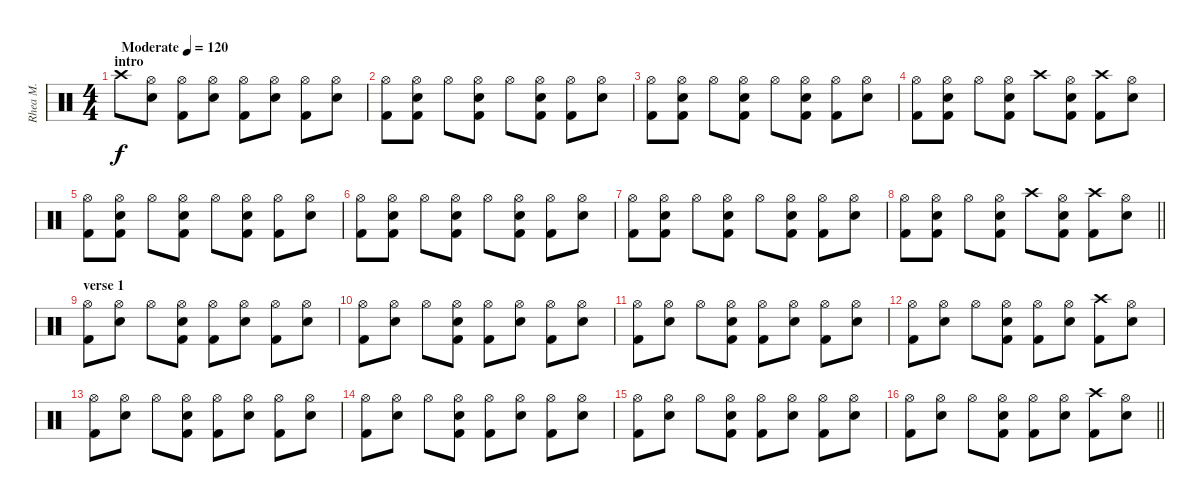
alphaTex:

\track ("Rhea M." "Rhea M.") {instrument percussion}
\staff {score}
\articulation defaults
\ts (4 4)
\section ("" "intro")
\tempo (120 "Moderate")
\clef neutral
\ks c "Crash high (hit)".8{dy f}
("Hi-Hat (open)" "Electric Snare (hit)").8 ("Hi-Hat (open)" "Kick (hit) 2").8 ("Hi-Hat (open)" "Electric Snare (hit)").8 ("Hi-Hat (open)" "Kick (hit) 2").8 ("Hi-Hat (open)" "Electric Snare (hit)").8 ("Hi-Hat (open)" "Kick (hit) 2").8 ("Hi-Hat (open)" "Electric Snare (hit)").8 |
("Hi-Hat (open)" "Kick (hit) 2").8 ("Hi-Hat (open)" "Electric Snare (hit)" "Kick (hit) 2").8 "Hi-Hat (open)".8 ("Hi-Hat (open)" "Electric Snare (hit)" "Kick (hit) 2").8 "Hi-Hat (open)".8 ("Hi-Hat (open)" "Electric Snare (hit)" "Kick (hit) 2").8 ("Hi-Hat (open)" "Kick (hit) 2").8 ("Hi-Hat (open)" "Electric Snare (hit)").8 |
("Hi-Hat (open)" "Kick (hit) 2").8 ("Hi-Hat (open)" "Electric Snare (hit)" "Kick (hit) 2").8 "Hi-Hat (open)".8 ("Hi-Hat (open)" "Electric Snare (hit)" "Kick (hit) 2").8 "Hi-Hat (open)".8 ("Hi-Hat (open)" "Electric Snare (hit)" "Kick (hit) 2").8 ("Hi-Hat (open)" "Kick (hit) 2").8 ("Hi-Hat (open)" "Electric Snare (hit)").8 |
("Hi-Hat (open)" "Kick (hit) 2").8 ("Hi-Hat (open)" "Electric Snare (hit)" "Kick (hit) 2").8 "Hi-Hat (open)".8 ("Hi-Hat (open)" "Electric Snare (hit)" "Kick (hit) 2").8 "Crash high (hit)".8 ("Hi-Hat (open)" "Electric Snare (hit)" "Kick (hit) 2").8 ("Crash high (hit)" "Kick (hit) 2").8 ("Hi-Hat (open)" "Electric Snare (hit)").8 |
("Hi-Hat (open)" "Kick (hit) 2").8 ("Hi-Hat (open)" "Electric Snare (hit)" "Kick (hit) 2").8 "Hi-Hat (open)".8 ("Hi-Hat (open)" "Electric Snare (hit)" "Kick (hit) 2").8 "Hi-Hat (open)".8 ("Hi-Hat (open)" "Electric Snare (hit)" "Kick (hit) 2").8 ("Hi-Hat (open)" "Kick (hit) 2").8 ("Hi-Hat (open)" "Electric Snare (hit)").8 |
("Hi-Hat (open)" "Kick (hit) 2").8 ("Hi-Hat (open)" "Electric Snare (hit)" "Kick (hit) 2").8 "Hi-Hat (open)".8 ("Hi-Hat (open)" "Electric Snare (hit)" "Kick (hit) 2").8 "Hi-Hat (open)".8 ("Hi-Hat (open)" "Electric Snare (hit)" "Kick (hit) 2").8 ("Hi-Hat (open)" "Kick (hit) 2").8 ("Hi-Hat (open)" "Electric Snare (hit)").8 |
("Hi-Hat (open)" "Kick (hit) 2").8 ("Hi-Hat (open)" "Electric Snare (hit)" "Kick (hit) 2").8 "Hi-Hat (open)".8 ("Hi-Hat (open)" "Electric Snare (hit)" "Kick (hit) 2").8 "Hi-Hat (open)".8 ("Hi-Hat (open)" "Electric Snare (hit)" "Kick (hit) 2").8 ("Hi-Hat (open)" "Kick (hit) 2").8 ("Hi-Hat (open)" "Electric Snare (hit)").8 |
\barLineRight lightlight
("Hi-Hat (open)" "Kick (hit) 2").8 ("Hi-Hat (open)" "Electric Snare (hit)" "Kick (hit) 2").8 "Hi-Hat (open)".8 ("Hi-Hat (open)" "Electric Snare (hit)" "Kick (hit) 2").8 "Crash high (hit)".8 ("Hi-Hat (open)" "Electric Snare (hit)" "Kick (hit) 2").8 ("Crash high (hit)" "Kick (hit) 2").8 ("Hi-Hat (open)" "Electric Snare (hit)").8 |
\section ("" "verse 1")
("Hi-Hat (open)" "Kick (hit) 2").8 ("Hi-Hat (open)" "Electric Snare (hit)").8 "Hi-Hat (open)".8 ("Hi-Hat (open)" "Electric Snare (hit)" "Kick (hit) 2").8 ("Hi-Hat (open)" "Kick (hit) 2").8 ("Hi-Hat (open)" "Electric Snare (hit)").8 ("Hi-Hat (open)" "Kick (hit) 2").8 ("Hi-Hat (open)" "Electric Snare (hit)").8 |
("Hi-Hat (open)" "Kick (hit) 2").8 ("Hi-Hat (open)" "Electric Snare (hit)").8 "Hi-Hat (open)".8 ("Hi-Hat (open)" "Electric Snare (hit)" "Kick (hit) 2").8 ("Hi-Hat (open)" "Kick (hit) 2").8 ("Hi-Hat (open)" "Electric Snare (hit)").8 ("Hi-Hat (open)" "Kick (hit) 2").8 ("Hi-Hat (open)" "Electric Snare (hit)").8 |
("Hi-Hat (open)" "Kick (hit) 2").8 ("Hi-Hat (open)" "Electric Snare (hit)").8 "Hi-Hat (open)".8 ("Hi-Hat (open)" "Electric Snare (hit)" "Kick (hit) 2").8 ("Hi-Hat (open)" "Kick (hit) 2").8 ("Hi-Hat (open)" "Electric Snare (hit)").8 ("Hi-Hat (open)" "Kick (hit) 2").8 ("Hi-Hat (open)" "Electric Snare (hit)").8 |
("Hi-Hat (open)" "Kick (hit) 2").8 ("Hi-Hat (open)" "Electric Snare (hit)").8 "Hi-Hat (open)".8 ("Hi-Hat (open)" "Electric Snare (hit)" "Kick (hit) 2").8 ("Hi-Hat (open)" "Kick (hit) 2").8 ("Hi-Hat (open)" "Electric Snare (hit)").8 ("Crash high (hit)" "Kick (hit) 2").8 ("Hi-Hat (open)" "Electric Snare (hit)").8 |
("Hi-Hat (open)" "Kick (hit) 2").8 ("Hi-Hat (open)" "Electric Snare (hit)").8 "Hi-Hat (open)".8 ("Hi-Hat (open)" "Electric Snare (hit)" "Kick (hit) 2").8 ("Hi-Hat (open)" "Kick (hit) 2").8 ("Hi-Hat (open)" "Electric Snare (hit)").8 ("Hi-Hat (open)" "Kick (hit) 2").8 ("Hi-Hat (open)" "Electric Snare (hit)").8 |
("Hi-Hat (open)" "Kick (hit) 2").8 ("Hi-Hat (open)" "Electric Snare (hit)").8 "Hi-Hat (open)".8 ("Hi-Hat (open)" "Electric Snare (hit)" "Kick (hit) 2").8 ("Hi-Hat (open)" "Kick (hit) 2").8 ("Hi-Hat (open)" "Electric Snare (hit)").8 ("Hi-Hat (open)" "Kick (hit) 2").8 ("Hi-Hat (open)" "Electric Snare (hit)").8 |
("Hi-Hat (open)" "Kick (hit) 2").8 ("Hi-Hat (open)" "Electric Snare (hit)").8 "Hi-Hat (open)".8 ("Hi-Hat (open)" "Electric Snare (hit)" "Kick (hit) 2").8 ("Hi-Hat (open)" "Kick (hit) 2").8 ("Hi-Hat (open)" "Electric Snare (hit)").8 ("Hi-Hat (open)" "Kick (hit) 2").8 ("Hi-Hat (open)" "Electric Snare (hit)").8 |
\barLineRight lightlight
("Hi-Hat (open)" "Kick (hit) 2").8 ("Hi-Hat (open)" "Electric Snare (hit)").8 "Hi-Hat (open)".8 ("Hi-Hat (open)" "Electric Snare (hit)" "Kick (hit) 2").8 ("Hi-Hat (open)" "Kick (hit) 2").8 ("Hi-Hat (open)" "Electric Snare (hit)").8 ("Crash high (hit)" "Kick (hit) 2").8 ("Hi-Hat (open)" "Electric Snare (hit)").8
